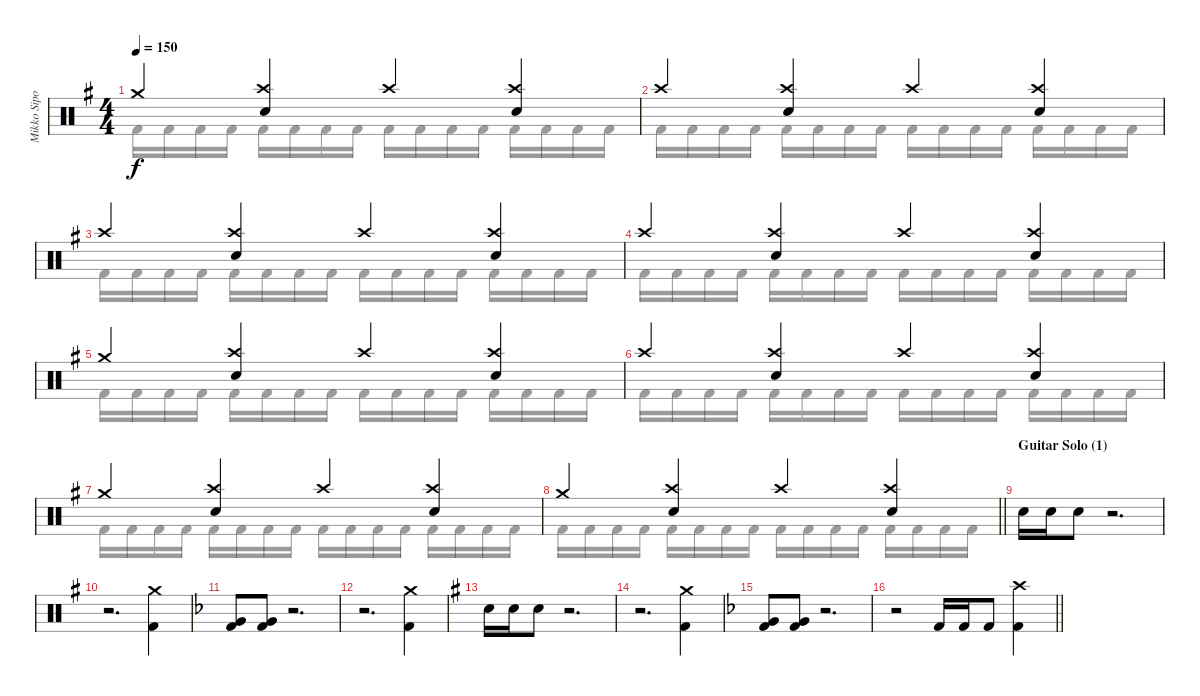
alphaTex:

\track ("Mikko Sipola (drums)" "Mikko Sipo") {instrument percussion}
\staff {score}
\articulation defaults
\voice
\ts (4 4)
\tempo 150
\clef neutral
\ks eminor "Crash medium (hit)".4{dy f}
("Crash high (hit)" "Electric Snare (hit)").4 "Crash high (hit)".4 ("Crash high (hit)" "Electric Snare (hit)").4 |
"Crash high (hit)".4 ("Crash high (hit)" "Electric Snare (hit)").4 "Crash high (hit)".4 ("Crash high (hit)" "Electric Snare (hit)").4 |
"Crash high (hit)".4 ("Crash high (hit)" "Electric Snare (hit)").4 "Crash high (hit)".4 ("Crash high (hit)" "Electric Snare (hit)").4 |
"Crash high (hit)".4 ("Crash high (hit)" "Electric Snare (hit)").4 "Crash high (hit)".4 ("Crash high (hit)" "Electric Snare (hit)").4 |
"Crash medium (hit)".4 ("Crash high (hit)" "Electric Snare (hit)").4 "Crash high (hit)".4 ("Crash high (hit)" "Electric Snare (hit)").4 |
"Crash high (hit)".4 ("Crash high (hit)" "Electric Snare (hit)").4 "Crash high (hit)".4 ("Crash high (hit)" "Electric Snare (hit)").4 |
"Crash medium (hit)".4 ("Crash high (hit)" "Electric Snare (hit)").4 "Crash high (hit)".4 ("Crash high (hit)" "Electric Snare (hit)").4 |
\barLineRight lightlight "Crash medium (hit)".4
("Crash high (hit)" "Electric Snare (hit)").4 "Crash high (hit)".4 ("Crash high (hit)" "Electric Snare (hit)").4 |
\section ("" "Guitar Solo (1)")
"Electric Snare (hit)".16 "Electric Snare (hit)".16 "Electric Snare (hit)".8 r.2{d} |
r.2{d} ("Crash medium (hit)" "Kick (hit) 2").4 |
\ks dminor
("Very Low Tom (hit)" "Kick (hit) 2").8 ("Very Low Tom (hit)" "Kick (hit) 2").8 r.2{d} |
r.2{d} ("Crash medium (hit)" "Kick (hit) 2").4 |
\ks eminor "Electric Snare (hit)".16 "Electric Snare (hit)".16 "Electric Snare (hit)".8
r.2{d} |
r.2{d} ("Crash medium (hit)" "Kick (hit) 2").4 |
\ks dminor
("Very Low Tom (hit)" "Kick (hit) 2").8 ("Very Low Tom (hit)" "Kick (hit) 2").8 r.2{d} |
\barLineRight lightlight
r.2 "Kick (hit) 2".16 "Kick (hit) 2".16 "Kick (hit) 2".8 ("Crash high (hit)" "Kick (hit) 2").4
\voice
\clef neutral
\ottava regular
\simile none
\ks eminor "Kick (hit) 2".16{dy f} "Kick (hit) 2".16 "Kick (hit) 2".16 "Kick (hit) 2".16 "Kick (hit) 2".16 "Kick (hit) 2".16 "Kick (hit) 2".16 "Kick (hit) 2".16 "Kick (hit) 2".16 "Kick (hit) 2".16 "Kick (hit) 2".16 "Kick (hit) 2".16 "Kick (hit) 2".16 "Kick (hit) 2".16 "Kick (hit) 2".16 "Kick (hit) 2".16
|
"Kick (hit) 2".16 "Kick (hit) 2".16 "Kick (hit) 2".16 "Kick (hit) 2".16 "Kick (hit) 2".16 "Kick (hit) 2".16 "Kick (hit) 2".16 "Kick (hit) 2".16 "Kick (hit) 2".16 "Kick (hit) 2".16 "Kick (hit) 2".16 "Kick (hit) 2".16 "Kick (hit) 2".16 "Kick (hit) 2".16 "Kick (hit) 2".16 "Kick (hit) 2".16 |
"Kick (hit) 2".16 "Kick (hit) 2".16 "Kick (hit) 2".16 "Kick (hit) 2".16 "Kick (hit) 2".16 "Kick (hit) 2".16 "Kick (hit) 2".16 "Kick (hit) 2".16 "Kick (hit) 2".16 "Kick (hit) 2".16 "Kick (hit) 2".16 "Kick (hit) 2".16 "Kick (hit) 2".16 "Kick (hit) 2".16 "Kick (hit) 2".16 "Kick (hit) 2".16 |
"Kick (hit) 2".16 "Kick (hit) 2".16 "Kick (hit) 2".16 "Kick (hit) 2".16 "Kick (hit) 2".16 "Kick (hit) 2".16 "Kick (hit) 2".16 "Kick (hit) 2".16 "Kick (hit) 2".16 "Kick (hit) 2".16 "Kick (hit) 2".16 "Kick (hit) 2".16 "Kick (hit) 2".16 "Kick (hit) 2".16 "Kick (hit) 2".16 "Kick (hit) 2".16 |
"Kick (hit) 2".16 "Kick (hit) 2".16 "Kick (hit) 2".16 "Kick (hit) 2".16 "Kick (hit) 2".16 "Kick (hit) 2".16 "Kick (hit) 2".16 "Kick (hit) 2".16 "Kick (hit) 2".16 "Kick (hit) 2".16 "Kick (hit) 2".16 "Kick (hit) 2".16 "Kick (hit) 2".16 "Kick (hit) 2".16 "Kick (hit) 2".16 "Kick (hit) 2".16 |
"Kick (hit) 2".16 "Kick (hit) 2".16 "Kick (hit) 2".16 "Kick (hit) 2".16 "Kick (hit) 2".16 "Kick (hit) 2".16 "Kick (hit) 2".16 "Kick (hit) 2".16 "Kick (hit) 2".16 "Kick (hit) 2".16 "Kick (hit) 2".16 "Kick (hit) 2".16 "Kick (hit) 2".16 "Kick (hit) 2".16 "Kick (hit) 2".16 "Kick (hit) 2".16 |
"Kick (hit) 2".16 "Kick (hit) 2".16 "Kick (hit) 2".16 "Kick (hit) 2".16 "Kick (hit) 2".16 "Kick (hit) 2".16 "Kick (hit) 2".16 "Kick (hit) 2".16 "Kick (hit) 2".16 "Kick (hit) 2".16 "Kick (hit) 2".16 "Kick (hit) 2".16 "Kick (hit) 2".16 "Kick (hit) 2".16 "Kick (hit) 2".16 "Kick (hit) 2".16 |
\barLineRight lightlight "Kick (hit) 2".16 "Kick (hit) 2".16 "Kick (hit) 2".16 "Kick (hit) 2".16 "Kick (hit) 2".16 "Kick (hit) 2".16 "Kick (hit) 2".16 "Kick (hit) 2".16 "Kick (hit) 2".16 "Kick (hit) 2".16 "Kick (hit) 2".16 "Kick (hit) 2".16 "Kick (hit) 2".16 "Kick (hit) 2".16 "Kick (hit) 2".16 "Kick (hit) 2".16
|
|
|
\ks dminor
|
|
\ks eminor
|
|
\ks dminor
|
\barLineRight lightlight
